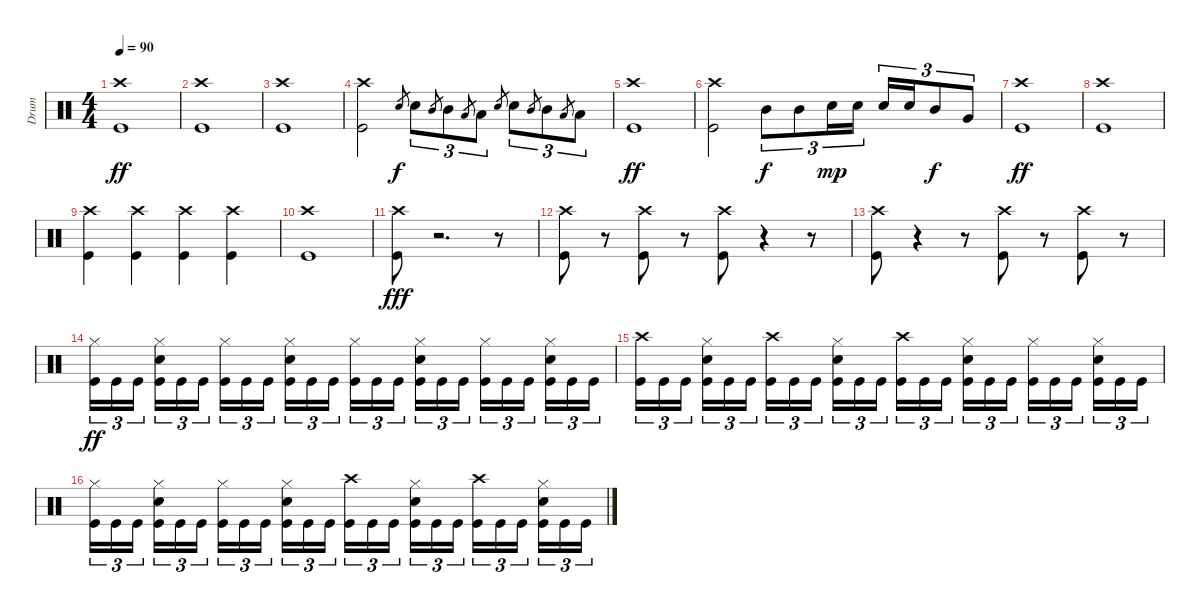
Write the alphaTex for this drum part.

\track ("Drum" "Drum") {instrument percussion}
\staff {score}
\articulation defaults
\ts (4 4)
\tempo 90
\clef neutral
\ks c
("Crash high (hit)" "Kick (hit)").1{dy ff} |
("Crash high (hit)" "Kick (hit)").1 |
("Crash high (hit)" "Kick (hit)").1 |
("Crash high (hit)" "Kick (hit)").2 "Snare (hit) 2".8{gr dy f} "Snare (hit) 2".8{tu (3 2)} "Mid Tom (hit)".8{gr} "Mid Tom (hit)".8{tu (3 2)} "Low Tom (hit)".8{gr} "Low Tom (hit)".8{tu (3 2)} "Snare (hit) 2".8{gr} "Snare (hit) 2".8{tu (3 2)} "Mid Tom (hit)".8{gr} "Mid Tom (hit)".8{tu (3 2)} "Low Tom (hit)".8{gr} "Low Tom (hit)".8{tu (3 2)} |
("Crash high (hit)" "Kick (hit)").1{dy ff} |
("Crash high (hit)" "Kick (hit)").2 "Mid Tom (hit)".8{tu (3 2) dy f} "Mid Tom (hit)".8{tu (3 2)} "Snare (hit) 2".16{tu (3 2) dy mp} "Snare (hit) 2".16{tu (3 2)} "Snare (hit) 2".16{tu (3 2)} "Snare (hit) 2".16{tu (3 2)} "Mid Tom (hit)".8{tu (3 2) dy f} "Very Low Tom (hit)".8{tu (3 2)} |
("Crash high (hit)" "Kick (hit)").1{dy ff} |
("Crash high (hit)" "Kick (hit)").1 |
("Crash high (hit)" "Kick (hit)").4 ("Crash high (hit)" "Kick (hit)").4 ("Crash high (hit)" "Kick (hit)").4 ("Crash high (hit)" "Kick (hit)").4 |
("Crash high (hit)" "Kick (hit)").1 |
("Crash high (hit)" "Kick (hit)").8{dy fff volume 0} r.2{d} r.8{volume 13} |
("Crash high (hit)" "Kick (hit)").8{volume 0} r.8{volume 13} ("Crash high (hit)" "Kick (hit)").8{volume 0} r.8{volume 13} ("Crash high (hit)" "Kick (hit)").8{volume 0} r.4 r.8{volume 13} |
("Crash high (hit)" "Kick (hit)").8{volume 0} r.4 r.8{volume 13} ("Crash high (hit)" "Kick (hit)").8{volume 0} r.8{volume 13} ("Crash high (hit)" "Kick (hit)").8{volume 0} r.8 |
("Hi-Hat (closed)" "Kick (hit)").16{tu (3 2) dy ff volume 13} "Kick (hit)".16{tu (3 2)} "Kick (hit)".16{tu (3 2) beam splitsecondary} ("Hi-Hat (closed)" "Snare (hit) 2" "Kick (hit)").16{tu (3 2)} "Kick (hit)".16{tu (3 2)} "Kick (hit)".16{tu (3 2)} ("Hi-Hat (closed)" "Kick (hit)").16{tu (3 2)} "Kick (hit)".16{tu (3 2)} "Kick (hit)".16{tu (3 2) beam splitsecondary} ("Hi-Hat (closed)" "Snare (hit) 2" "Kick (hit)").16{tu (3 2)} "Kick (hit)".16{tu (3 2)} "Kick (hit)".16{tu (3 2)} ("Hi-Hat (closed)" "Kick (hit)").16{tu (3 2)} "Kick (hit)".16{tu (3 2)} "Kick (hit)".16{tu (3 2) beam splitsecondary} ("Hi-Hat (closed)" "Snare (hit) 2" "Kick (hit)").16{tu (3 2)} "Kick (hit)".16{tu (3 2)} "Kick (hit)".16{tu (3 2)} ("Hi-Hat (closed)" "Kick (hit)").16{tu (3 2)} "Kick (hit)".16{tu (3 2)} "Kick (hit)".16{tu (3 2) beam splitsecondary} ("Hi-Hat (closed)" "Snare (hit) 2" "Kick (hit)").16{tu (3 2)} "Kick (hit)".16{tu (3 2)} "Kick (hit)".16{tu (3 2)} |
("Crash high (hit)" "Kick (hit)").16{tu (3 2)} "Kick (hit)".16{tu (3 2)} "Kick (hit)".16{tu (3 2) beam splitsecondary} ("Hi-Hat (closed)" "Snare (hit) 2" "Kick (hit)").16{tu (3 2)} "Kick (hit)".16{tu (3 2)} "Kick (hit)".16{tu (3 2)} ("Crash high (hit)" "Kick (hit)").16{tu (3 2)} "Kick (hit)".16{tu (3 2)} "Kick (hit)".16{tu (3 2) beam splitsecondary} ("Hi-Hat (closed)" "Snare (hit) 2" "Kick (hit)").16{tu (3 2)} "Kick (hit)".16{tu (3 2)} "Kick (hit)".16{tu (3 2)} ("Crash high (hit)" "Kick (hit)").16{tu (3 2)} "Kick (hit)".16{tu (3 2)} "Kick (hit)".16{tu (3 2) beam splitsecondary} ("Hi-Hat (closed)" "Snare (hit) 2" "Kick (hit)").16{tu (3 2)} "Kick (hit)".16{tu (3 2)} "Kick (hit)".16{tu (3 2)} ("Hi-Hat (closed)" "Kick (hit)").16{tu (3 2)} "Kick (hit)".16{tu (3 2)} "Kick (hit)".16{tu (3 2) beam splitsecondary} ("Hi-Hat (closed)" "Snare (hit) 2" "Kick (hit)").16{tu (3 2)} "Kick (hit)".16{tu (3 2)} "Kick (hit)".16{tu (3 2)} |
("Hi-Hat (closed)" "Kick (hit)").16{tu (3 2)} "Kick (hit)".16{tu (3 2)} "Kick (hit)".16{tu (3 2) beam splitsecondary} ("Hi-Hat (closed)" "Snare (hit) 2" "Kick (hit)").16{tu (3 2)} "Kick (hit)".16{tu (3 2)} "Kick (hit)".16{tu (3 2)} ("Hi-Hat (closed)" "Kick (hit)").16{tu (3 2)} "Kick (hit)".16{tu (3 2)} "Kick (hit)".16{tu (3 2) beam splitsecondary} ("Hi-Hat (closed)" "Snare (hit) 2" "Kick (hit)").16{tu (3 2)} "Kick (hit)".16{tu (3 2)} "Kick (hit)".16{tu (3 2)} ("Crash high (hit)" "Kick (hit)").16{tu (3 2)} "Kick (hit)".16{tu (3 2)} "Kick (hit)".16{tu (3 2) beam splitsecondary} ("Hi-Hat (closed)" "Snare (hit) 2" "Kick (hit)").16{tu (3 2)} "Kick (hit)".16{tu (3 2)} "Kick (hit)".16{tu (3 2)} ("Crash high (hit)" "Kick (hit)").16{tu (3 2)} "Kick (hit)".16{tu (3 2)} "Kick (hit)".16{tu (3 2) beam splitsecondary} ("Hi-Hat (closed)" "Snare (hit) 2" "Kick (hit)").16{tu (3 2)} "Kick (hit)".16{tu (3 2)} "Kick (hit)".16{tu (3 2)}
